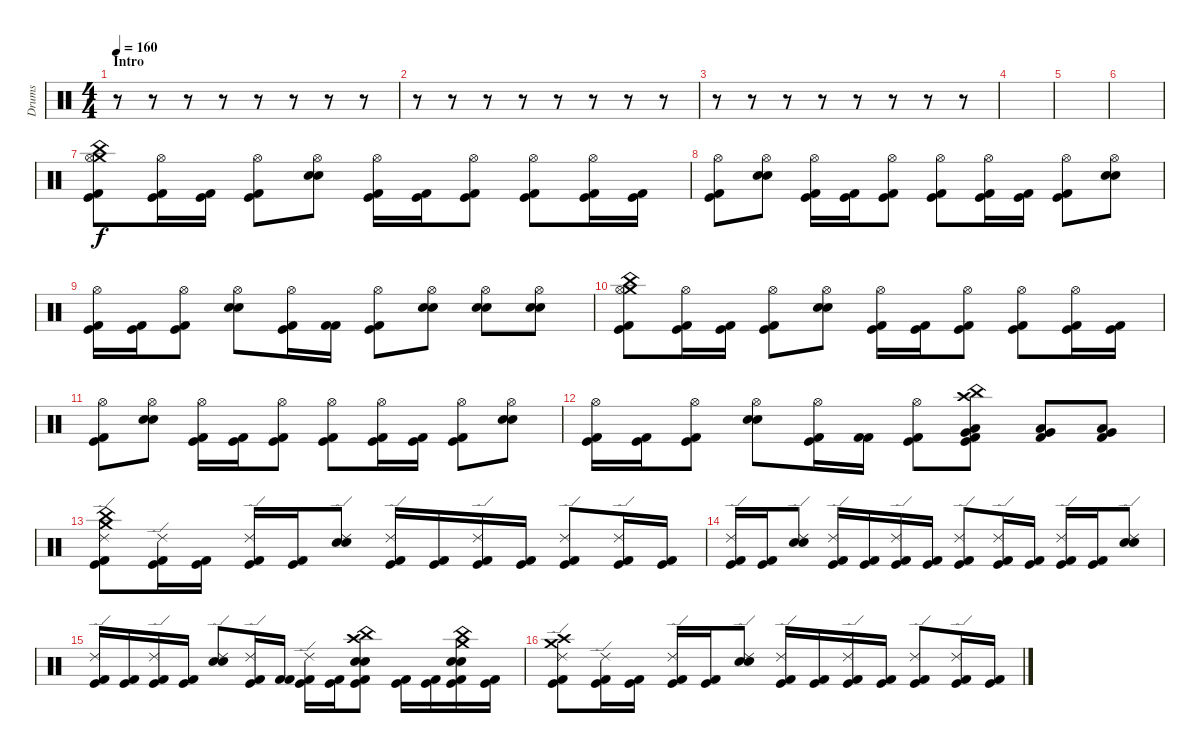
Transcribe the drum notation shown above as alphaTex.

\track ("Drums" "Drums") {instrument percussion}
\staff {score}
\articulation defaults
\ts (4 4)
\section ("" "Intro")
\tempo 160
\clef neutral
\ks c
r.8{dy f} r.8 r.8 r.8 r.8 r.8 r.8 r.8 |
r.8 r.8 r.8 r.8 r.8 r.8 r.8 r.8 |
r.8 r.8 r.8 r.8 r.8 r.8 r.8 r.8 |
|
|
|
("Crash medium (hit)" "Hi-Hat (open)" "China (hit)" "Kick (hit) 2" "Kick (hit)").8 ("Hi-Hat (open)" "Kick (hit) 2" "Kick (hit)").16 ("Kick (hit) 2" "Kick (hit)").16 ("Hi-Hat (open)" "Kick (hit) 2" "Kick (hit)").8 ("Hi-Hat (open)" "Electric Snare (hit)" "Snare (hit) 2").8 ("Hi-Hat (open)" "Kick (hit) 2" "Kick (hit)").16 ("Kick (hit) 2" "Kick (hit)").16 ("Hi-Hat (open)" "Kick (hit) 2" "Kick (hit)").8 ("Hi-Hat (open)" "Kick (hit) 2" "Kick (hit)").8 ("Hi-Hat (open)" "Kick (hit) 2" "Kick (hit)").16 ("Kick (hit) 2" "Kick (hit)").16 |
("Hi-Hat (open)" "Kick (hit)" "Kick (hit) 2").8 ("Hi-Hat (open)" "Electric Snare (hit)" "Snare (hit) 2").8 ("Hi-Hat (open)" "Kick (hit) 2" "Kick (hit)").16 ("Kick (hit) 2" "Kick (hit)").16 ("Hi-Hat (open)" "Kick (hit) 2" "Kick (hit)").8 ("Hi-Hat (open)" "Kick (hit) 2" "Kick (hit)").8 ("Hi-Hat (open)" "Kick (hit) 2" "Kick (hit)").16 ("Kick (hit)" "Kick (hit) 2").16 ("Hi-Hat (open)" "Kick (hit) 2" "Kick (hit)").8 ("Hi-Hat (open)" "Electric Snare (hit)" "Snare (hit) 2").8 |
("Hi-Hat (open)" "Kick (hit) 2" "Kick (hit)").16 ("Kick (hit) 2" "Kick (hit)").16 ("Hi-Hat (open)" "Kick (hit)" "Kick (hit) 2").8 ("Hi-Hat (open)" "Electric Snare (hit)" "Snare (hit) 2").8 ("Hi-Hat (open)" "Kick (hit)" "Kick (hit) 2").16 ("Kick (hit) 2" "Kick (hit) 2").16 ("Hi-Hat (open)" "Kick (hit) 2" "Kick (hit)").8 ("Hi-Hat (open)" "Electric Snare (hit)" "Snare (hit) 2").8 ("Hi-Hat (open)" "Electric Snare (hit)" "Snare (hit) 2").8 ("Hi-Hat (open)" "Electric Snare (hit)" "Snare (hit) 2").8 |
("Crash medium (hit)" "Hi-Hat (open)" "China (hit)" "Kick (hit) 2" "Kick (hit)").8 ("Hi-Hat (open)" "Kick (hit) 2" "Kick (hit)").16 ("Kick (hit) 2" "Kick (hit)").16 ("Hi-Hat (open)" "Kick (hit) 2" "Kick (hit)").8 ("Hi-Hat (open)" "Electric Snare (hit)" "Snare (hit) 2").8 ("Hi-Hat (open)" "Kick (hit) 2" "Kick (hit)").16 ("Kick (hit) 2" "Kick (hit)").16 ("Hi-Hat (open)" "Kick (hit) 2" "Kick (hit)").8 ("Hi-Hat (open)" "Kick (hit) 2" "Kick (hit)").8 ("Hi-Hat (open)" "Kick (hit) 2" "Kick (hit)").16 ("Kick (hit) 2" "Kick (hit)").16 |
("Hi-Hat (open)" "Kick (hit)" "Kick (hit) 2").8 ("Hi-Hat (open)" "Electric Snare (hit)" "Snare (hit) 2").8 ("Hi-Hat (open)" "Kick (hit) 2" "Kick (hit)").16 ("Kick (hit) 2" "Kick (hit)").16 ("Hi-Hat (open)" "Kick (hit) 2" "Kick (hit)").8 ("Hi-Hat (open)" "Kick (hit) 2" "Kick (hit)").8 ("Hi-Hat (open)" "Kick (hit) 2" "Kick (hit)").16 ("Kick (hit)" "Kick (hit) 2").16 ("Hi-Hat (open)" "Kick (hit) 2" "Kick (hit)").8 ("Hi-Hat (open)" "Electric Snare (hit)" "Snare (hit) 2").8 |
("Hi-Hat (open)" "Kick (hit) 2" "Kick (hit)").16 ("Kick (hit) 2" "Kick (hit)").16 ("Hi-Hat (open)" "Kick (hit)" "Kick (hit) 2").8 ("Hi-Hat (open)" "Electric Snare (hit)" "Snare (hit) 2").8 ("Hi-Hat (open)" "Kick (hit)" "Kick (hit) 2").16 ("Kick (hit) 2" "Kick (hit) 2").16 ("Hi-Hat (open)" "Kick (hit) 2" "Kick (hit)").8 ("China (hit)" "Crash high (hit)" "Very Low Tom (hit)" "Low Tom (hit)" "Kick (hit) 2" "Kick (hit)").8 ("Very Low Tom (hit)" "Low Tom (hit)" "Kick (hit) 2").8 ("Very Low Tom (hit)" "Low Tom (hit)" "Kick (hit) 2").8 |
("Crash medium (hit)" "Ride (edge) 2" "China (hit)" "Kick (hit) 2" "Kick (hit)").8 ("Ride (edge) 2" "Kick (hit) 2" "Kick (hit)").16 ("Kick (hit) 2" "Kick (hit)").16 ("Ride (edge) 2" "Kick (hit) 2" "Kick (hit)").16 ("Kick (hit) 2" "Kick (hit)").16 ("Ride (edge) 2" "Electric Snare (hit)" "Snare (hit) 2").8 ("Ride (edge) 2" "Kick (hit) 2" "Kick (hit)").16 ("Kick (hit) 2" "Kick (hit)").16 ("Ride (edge) 2" "Kick (hit) 2" "Kick (hit)").16 ("Kick (hit) 2" "Kick (hit)").16 ("Ride (edge) 2" "Kick (hit) 2" "Kick (hit)").8 ("Ride (edge) 2" "Kick (hit) 2" "Kick (hit)").16 ("Kick (hit) 2" "Kick (hit)").16 |
("Ride (edge) 2" "Kick (hit) 2" "Kick (hit)").16 ("Kick (hit)" "Kick (hit) 2").16 ("Ride (edge) 2" "Electric Snare (hit)" "Snare (hit) 2").8 ("Ride (edge) 2" "Kick (hit) 2" "Kick (hit)").16 ("Kick (hit) 2" "Kick (hit)").16 ("Ride (edge) 2" "Kick (hit) 2" "Kick (hit)").16 ("Kick (hit) 2" "Kick (hit)").16 ("Ride (edge) 2" "Kick (hit) 2" "Kick (hit)").8 ("Ride (edge) 2" "Kick (hit) 2" "Kick (hit)").16 ("Kick (hit)" "Kick (hit) 2").16 ("Ride (edge) 2" "Kick (hit)" "Kick (hit) 2").16 ("Kick (hit) 2" "Kick (hit)").16 ("Ride (edge) 2" "Electric Snare (hit)" "Snare (hit) 2").8 |
("Ride (edge) 2" "Kick (hit) 2" "Kick (hit)").16 ("Kick (hit) 2" "Kick (hit)").16 ("Ride (edge) 2" "Kick (hit)" "Kick (hit) 2").16 ("Kick (hit)" "Kick (hit) 2").16 ("Ride (edge) 2" "Electric Snare (hit)" "Snare (hit) 2").8 ("Ride (edge) 2" "Kick (hit)" "Kick (hit) 2").16 ("Kick (hit) 2" "Kick (hit) 2").16 ("Ride (edge) 2" "Kick (hit) 2" "Kick (hit)").16 ("Kick (hit) 2" "Kick (hit)").16 ("China (hit)" "Crash high (hit)" "Snare (hit) 2" "Electric Snare (hit)" "Kick (hit) 2" "Kick (hit)").8 ("Kick (hit) 2" "Kick (hit)").16 ("Kick (hit) 2" "Kick (hit)").16 ("China (hit)" "Crash medium (hit)" "Electric Snare (hit)" "Snare (hit) 2" "Kick (hit) 2" "Kick (hit)").16 ("Kick (hit) 2" "Kick (hit)").16 |
("Crash medium (hit)" "Ride (edge) 2" "Crash high (hit)" "Kick (hit) 2" "Kick (hit)").8 ("Ride (edge) 2" "Kick (hit) 2" "Kick (hit)").16 ("Kick (hit) 2" "Kick (hit)").16 ("Ride (edge) 2" "Kick (hit) 2" "Kick (hit)").16 ("Kick (hit) 2" "Kick (hit)").16 ("Ride (edge) 2" "Electric Snare (hit)" "Snare (hit) 2").8 ("Ride (edge) 2" "Kick (hit) 2" "Kick (hit)").16 ("Kick (hit) 2" "Kick (hit)").16 ("Ride (edge) 2" "Kick (hit) 2" "Kick (hit)").16 ("Kick (hit) 2" "Kick (hit)").16 ("Ride (edge) 2" "Kick (hit) 2" "Kick (hit)").8 ("Ride (edge) 2" "Kick (hit) 2" "Kick (hit)").16 ("Kick (hit) 2" "Kick (hit)").16
